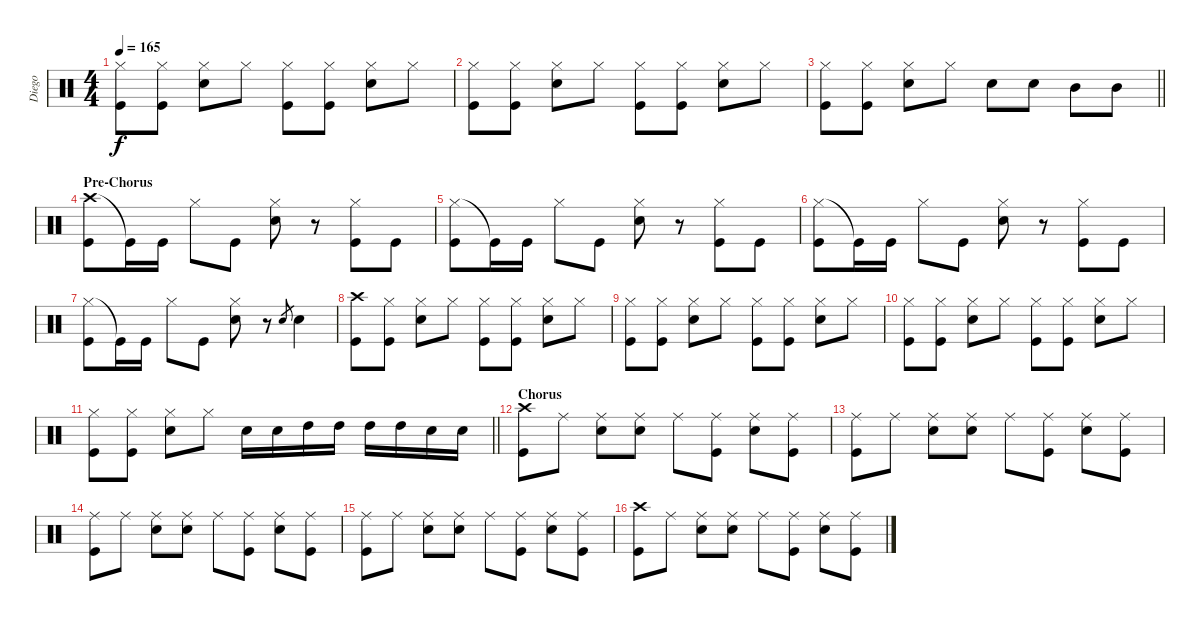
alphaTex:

\track ("Diego" "Diego") {instrument percussion}
\staff {score}
\articulation defaults
\ts (4 4)
\tempo 165
\clef neutral
\ks c
("Hi-Hat (closed)" "Kick (hit)").8{dy f} ("Hi-Hat (closed)" "Kick (hit)").8 ("Hi-Hat (closed)" "Snare (hit) 2").8 "Hi-Hat (closed)".8 ("Hi-Hat (closed)" "Kick (hit)").8 ("Hi-Hat (closed)" "Kick (hit)").8 ("Hi-Hat (closed)" "Snare (hit) 2").8 "Hi-Hat (closed)".8 |
("Hi-Hat (closed)" "Kick (hit)").8 ("Hi-Hat (closed)" "Kick (hit)").8 ("Hi-Hat (closed)" "Snare (hit) 2").8 "Hi-Hat (closed)".8 ("Hi-Hat (closed)" "Kick (hit)").8 ("Hi-Hat (closed)" "Kick (hit)").8 ("Hi-Hat (closed)" "Snare (hit) 2").8 "Hi-Hat (closed)".8 |
\barLineRight lightlight
("Hi-Hat (closed)" "Kick (hit)").8 ("Hi-Hat (closed)" "Kick (hit)").8 ("Hi-Hat (closed)" "Snare (hit) 2").8 "Hi-Hat (closed)".8 "Snare (hit) 2".8 "Snare (hit) 2".8 "Mid Tom (hit)".8 "Mid Tom (hit)".8 |
\section ("" "Pre-Chorus")
("Crash high (hit)" "Kick (hit)").8 "Kick (hit)"{t}.16 "Kick (hit)".16 "Hi-Hat (closed)".8 "Kick (hit)".8 ("Hi-Hat (closed)" "Snare (hit) 2").8 r.8 ("Hi-Hat (closed)" "Kick (hit)").8 "Kick (hit)".8 |
("Hi-Hat (closed)" "Kick (hit)").8 "Kick (hit)"{t}.16 "Kick (hit)".16 "Hi-Hat (closed)".8 "Kick (hit)".8 ("Hi-Hat (closed)" "Snare (hit) 2").8 r.8 ("Hi-Hat (closed)" "Kick (hit)").8 "Kick (hit)".8 |
("Hi-Hat (closed)" "Kick (hit)").8 "Kick (hit)"{t}.16 "Kick (hit)".16 "Hi-Hat (closed)".8 "Kick (hit)".8 ("Hi-Hat (closed)" "Snare (hit) 2").8 r.8 ("Hi-Hat (closed)" "Kick (hit)").8 "Kick (hit)".8 |
("Hi-Hat (closed)" "Kick (hit)").8 "Kick (hit)"{t}.16 "Kick (hit)".16 "Hi-Hat (closed)".8 "Kick (hit)".8 ("Hi-Hat (closed)" "Snare (hit) 2").8 r.8 "Snare (hit) 2".8{gr} "Snare (hit) 2".4 |
("Crash high (hit)" "Kick (hit)").8 ("Hi-Hat (closed)" "Kick (hit)").8 ("Hi-Hat (closed)" "Snare (hit) 2").8 "Hi-Hat (closed)".8 ("Hi-Hat (closed)" "Kick (hit)").8 ("Hi-Hat (closed)" "Kick (hit)").8 ("Hi-Hat (closed)" "Snare (hit) 2").8 "Hi-Hat (closed)".8 |
("Hi-Hat (closed)" "Kick (hit)").8 ("Hi-Hat (closed)" "Kick (hit)").8 ("Hi-Hat (closed)" "Snare (hit) 2").8 "Hi-Hat (closed)".8 ("Hi-Hat (closed)" "Kick (hit)").8 ("Hi-Hat (closed)" "Kick (hit)").8 ("Hi-Hat (closed)" "Snare (hit) 2").8 "Hi-Hat (closed)".8 |
("Hi-Hat (closed)" "Kick (hit)").8 ("Hi-Hat (closed)" "Kick (hit)").8 ("Hi-Hat (closed)" "Snare (hit) 2").8 "Hi-Hat (closed)".8 ("Hi-Hat (closed)" "Kick (hit)").8 ("Hi-Hat (closed)" "Kick (hit)").8 ("Hi-Hat (closed)" "Snare (hit) 2").8 "Hi-Hat (closed)".8 |
\barLineRight lightlight
("Hi-Hat (closed)" "Kick (hit)").8 ("Hi-Hat (closed)" "Kick (hit)").8 ("Hi-Hat (closed)" "Snare (hit) 2").8 "Hi-Hat (closed)".8 "Snare (hit) 2".16 "Snare (hit) 2".16 "High Tom (hit)".16 "High Tom (hit)".16 "High Tom (hit)".16 "High Tom (hit)".16 "Snare (hit) 2".16 "Snare (hit) 2".16 |
\section ("" "Chorus")
("Crash high (hit)" "Kick (hit)").8 "Ride (middle)".8 ("Ride (middle)" "Snare (hit) 2").8 ("Ride (middle)" "Snare (hit) 2").8 "Ride (middle)".8 ("Ride (middle)" "Kick (hit)").8 ("Ride (middle)" "Snare (hit) 2").8 ("Ride (middle)" "Kick (hit)").8 |
("Ride (middle)" "Kick (hit)").8 "Ride (middle)".8 ("Ride (middle)" "Snare (hit) 2").8 ("Ride (middle)" "Snare (hit) 2").8 "Ride (middle)".8 ("Ride (middle)" "Kick (hit)").8 ("Ride (middle)" "Snare (hit) 2").8 ("Ride (middle)" "Kick (hit)").8 |
("Ride (middle)" "Kick (hit)").8 "Ride (middle)".8 ("Ride (middle)" "Snare (hit) 2").8 ("Ride (middle)" "Snare (hit) 2").8 "Ride (middle)".8 ("Ride (middle)" "Kick (hit)").8 ("Ride (middle)" "Snare (hit) 2").8 ("Ride (middle)" "Kick (hit)").8 |
("Ride (middle)" "Kick (hit)").8 "Ride (middle)".8 ("Ride (middle)" "Snare (hit) 2").8 ("Ride (middle)" "Snare (hit) 2").8 "Ride (middle)".8 ("Ride (middle)" "Kick (hit)").8 ("Ride (middle)" "Snare (hit) 2").8 ("Ride (middle)" "Kick (hit)").8 |
("Crash high (hit)" "Kick (hit)").8 "Ride (middle)".8 ("Ride (middle)" "Snare (hit) 2").8 ("Ride (middle)" "Snare (hit) 2").8 "Ride (middle)".8 ("Ride (middle)" "Kick (hit)").8 ("Ride (middle)" "Snare (hit) 2").8 ("Ride (middle)" "Kick (hit)").8
